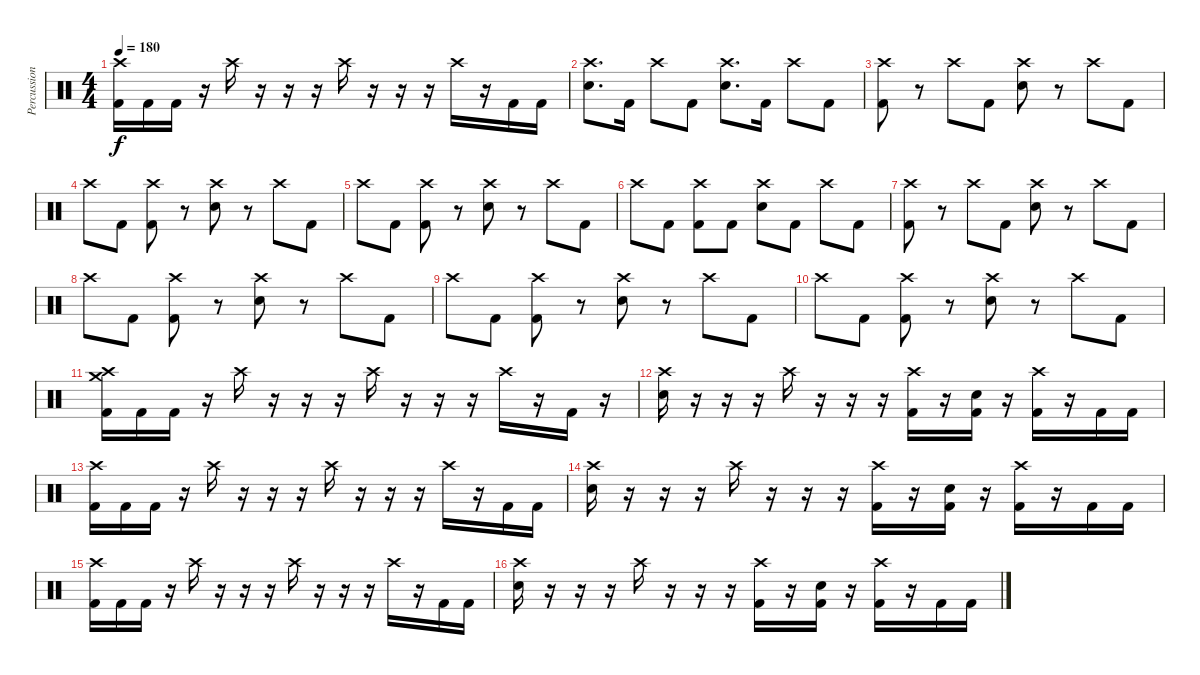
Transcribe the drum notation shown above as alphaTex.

\track ("Percussion" "Percussion") {instrument percussion}
\staff {score}
\articulation defaults
\ts (4 4)
\tempo 180
\clef neutral
\ks c
("Crash high (hit)" "Kick (hit) 2").16{dy f} "Kick (hit) 2".16 "Kick (hit) 2".16 r.16 "Crash high (hit)".16 r.16 r.16 r.16 "Crash high (hit)".16 r.16 r.16 r.16 "Crash high (hit)".16 r.16 "Kick (hit) 2".16 "Kick (hit) 2".16 |
("Crash high (hit)" "Electric Snare (hit)").8{d} "Kick (hit) 2".16 "Crash high (hit)".8 "Kick (hit) 2".8 ("Crash high (hit)" "Electric Snare (hit)").8{d} "Kick (hit) 2".16 "Crash high (hit)".8 "Kick (hit) 2".8 |
("Crash high (hit)" "Kick (hit) 2").8 r.8 "Crash high (hit)".8 "Kick (hit) 2".8 ("Crash high (hit)" "Electric Snare (hit)").8 r.8 "Crash high (hit)".8 "Kick (hit) 2".8 |
"Crash high (hit)".8 "Kick (hit) 2".8 ("Crash high (hit)" "Kick (hit) 2").8 r.8 ("Crash high (hit)" "Electric Snare (hit)").8 r.8 "Crash high (hit)".8 "Kick (hit) 2".8 |
"Crash high (hit)".8 "Kick (hit) 2".8 ("Crash high (hit)" "Kick (hit) 2").8 r.8 ("Crash high (hit)" "Electric Snare (hit)").8 r.8 "Crash high (hit)".8 "Kick (hit) 2".8 |
"Crash high (hit)".8 "Kick (hit) 2".8 ("Crash high (hit)" "Kick (hit) 2").8 "Kick (hit) 2".8 ("Crash high (hit)" "Electric Snare (hit)").8 "Kick (hit) 2".8 "Crash high (hit)".8 "Kick (hit) 2".8 |
("Crash high (hit)" "Kick (hit) 2").8 r.8 "Crash high (hit)".8 "Kick (hit) 2".8 ("Crash high (hit)" "Electric Snare (hit)").8 r.8 "Crash high (hit)".8 "Kick (hit) 2".8 |
"Crash high (hit)".8 "Kick (hit) 2".8 ("Crash high (hit)" "Kick (hit) 2").8 r.8 ("Crash high (hit)" "Electric Snare (hit)").8 r.8 "Crash high (hit)".8 "Kick (hit) 2".8 |
"Crash high (hit)".8 "Kick (hit) 2".8 ("Crash high (hit)" "Kick (hit) 2").8 r.8 ("Crash high (hit)" "Electric Snare (hit)").8 r.8 "Crash high (hit)".8 "Kick (hit) 2".8 |
"Crash high (hit)".8 "Kick (hit) 2".8 ("Crash high (hit)" "Kick (hit) 2").8 r.8 ("Crash high (hit)" "Electric Snare (hit)").8 r.8 "Crash high (hit)".8 "Kick (hit) 2".8 |
("Crash medium (hit)" "Crash high (hit)" "Kick (hit) 2").16 "Kick (hit) 2".16 "Kick (hit) 2".16 r.16 "Crash high (hit)".16 r.16 r.16 r.16 "Crash high (hit)".16 r.16 r.16 r.16 "Crash high (hit)".16 r.16 "Kick (hit) 2".16 r.16 |
("Crash high (hit)" "Electric Snare (hit)").16 r.16 r.16 r.16 "Crash high (hit)".16 r.16 r.16 r.16 ("Crash high (hit)" "Kick (hit) 2").16 r.16 ("Electric Snare (hit)" "Kick (hit) 2").16 r.16 ("Crash high (hit)" "Kick (hit) 2").16 r.16 "Kick (hit) 2".16 "Kick (hit) 2".16 |
("Crash high (hit)" "Kick (hit) 2").16 "Kick (hit) 2".16 "Kick (hit) 2".16 r.16 "Crash high (hit)".16 r.16 r.16 r.16 "Crash high (hit)".16 r.16 r.16 r.16 "Crash high (hit)".16 r.16 "Kick (hit) 2".16 "Kick (hit) 2".16 |
("Crash high (hit)" "Electric Snare (hit)").16 r.16 r.16 r.16 "Crash high (hit)".16 r.16 r.16 r.16 ("Crash high (hit)" "Kick (hit) 2").16 r.16 ("Electric Snare (hit)" "Kick (hit) 2").16 r.16 ("Crash high (hit)" "Kick (hit) 2").16 r.16 "Kick (hit) 2".16 "Kick (hit) 2".16 |
("Crash high (hit)" "Kick (hit) 2").16 "Kick (hit) 2".16 "Kick (hit) 2".16 r.16 "Crash high (hit)".16 r.16 r.16 r.16 "Crash high (hit)".16 r.16 r.16 r.16 "Crash high (hit)".16 r.16 "Kick (hit) 2".16 "Kick (hit) 2".16 |
("Crash high (hit)" "Electric Snare (hit)").16 r.16 r.16 r.16 "Crash high (hit)".16 r.16 r.16 r.16 ("Crash high (hit)" "Kick (hit) 2").16 r.16 ("Electric Snare (hit)" "Kick (hit) 2").16 r.16 ("Crash high (hit)" "Kick (hit) 2").16 r.16 "Kick (hit) 2".16 "Kick (hit) 2".16
